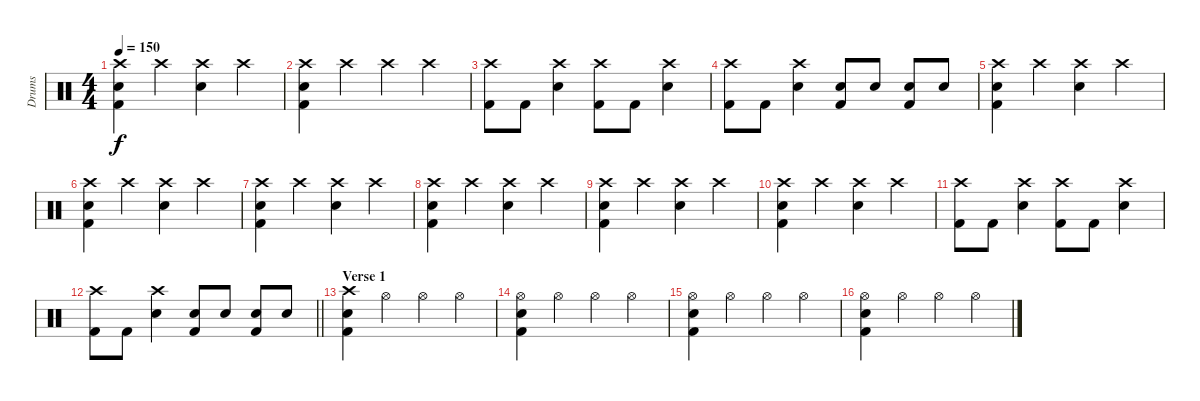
\track ("Drums" "Drums") {instrument percussion}
\staff {score}
\articulation defaults
\ts (4 4)
\tempo 150
\clef neutral
\ks c
("Crash high (hit)" "Electric Snare (hit)" "Kick (hit) 2").4{dy f} "Crash high (hit)".4 ("Crash high (hit)" "Electric Snare (hit)").4 "Crash high (hit)".4 |
("Crash high (hit)" "Electric Snare (hit)" "Kick (hit) 2").4 "Crash high (hit)".4 "Crash high (hit)".4 "Crash high (hit)".4 |
("Crash high (hit)" "Kick (hit) 2").8 "Kick (hit) 2".8 ("Crash high (hit)" "Electric Snare (hit)").4 ("Crash high (hit)" "Kick (hit) 2").8 "Kick (hit) 2".8 ("Crash high (hit)" "Electric Snare (hit)").4 |
("Crash high (hit)" "Kick (hit) 2").8 "Kick (hit) 2".8 ("Crash high (hit)" "Electric Snare (hit)").4 ("Electric Snare (hit)" "Kick (hit) 2").8 "Electric Snare (hit)".8 ("Electric Snare (hit)" "Kick (hit) 2").8 "Electric Snare (hit)".8 |
("Crash high (hit)" "Electric Snare (hit)" "Kick (hit) 2").4 "Crash high (hit)".4 ("Crash high (hit)" "Electric Snare (hit)").4 "Crash high (hit)".4 |
("Crash high (hit)" "Electric Snare (hit)" "Kick (hit) 2").4 "Crash high (hit)".4 ("Crash high (hit)" "Electric Snare (hit)").4 "Crash high (hit)".4 |
("Crash high (hit)" "Electric Snare (hit)" "Kick (hit) 2").4 "Crash high (hit)".4 ("Crash high (hit)" "Electric Snare (hit)").4 "Crash high (hit)".4 |
("Crash high (hit)" "Electric Snare (hit)" "Kick (hit) 2").4 "Crash high (hit)".4 ("Crash high (hit)" "Electric Snare (hit)").4 "Crash high (hit)".4 |
("Crash high (hit)" "Electric Snare (hit)" "Kick (hit) 2").4 "Crash high (hit)".4 ("Crash high (hit)" "Electric Snare (hit)").4 "Crash high (hit)".4 |
("Crash high (hit)" "Electric Snare (hit)" "Kick (hit) 2").4 "Crash high (hit)".4 ("Crash high (hit)" "Electric Snare (hit)").4 "Crash high (hit)".4 |
("Crash high (hit)" "Kick (hit) 2").8 "Kick (hit) 2".8 ("Crash high (hit)" "Electric Snare (hit)").4 ("Crash high (hit)" "Kick (hit) 2").8 "Kick (hit) 2".8 ("Crash high (hit)" "Electric Snare (hit)").4 |
\barLineRight lightlight
("Crash high (hit)" "Kick (hit) 2").8 "Kick (hit) 2".8 ("Crash high (hit)" "Electric Snare (hit)").4 ("Electric Snare (hit)" "Kick (hit) 2").8 "Electric Snare (hit)".8 ("Electric Snare (hit)" "Kick (hit) 2").8 "Electric Snare (hit)".8 |
\section ("" "Verse 1")
("Crash high (hit)" "Electric Snare (hit)" "Kick (hit) 2").4 "Hi-Hat (open)".4 "Hi-Hat (open)".4 "Hi-Hat (open)".4 |
("Hi-Hat (open)" "Electric Snare (hit)" "Kick (hit) 2").4 "Hi-Hat (open)".4 "Hi-Hat (open)".4 "Hi-Hat (open)".4 |
("Hi-Hat (open)" "Electric Snare (hit)" "Kick (hit) 2").4 "Hi-Hat (open)".4 "Hi-Hat (open)".4 "Hi-Hat (open)".4 |
("Hi-Hat (open)" "Electric Snare (hit)" "Kick (hit) 2").4 "Hi-Hat (open)".4 "Hi-Hat (open)".4 "Hi-Hat (open)".4
